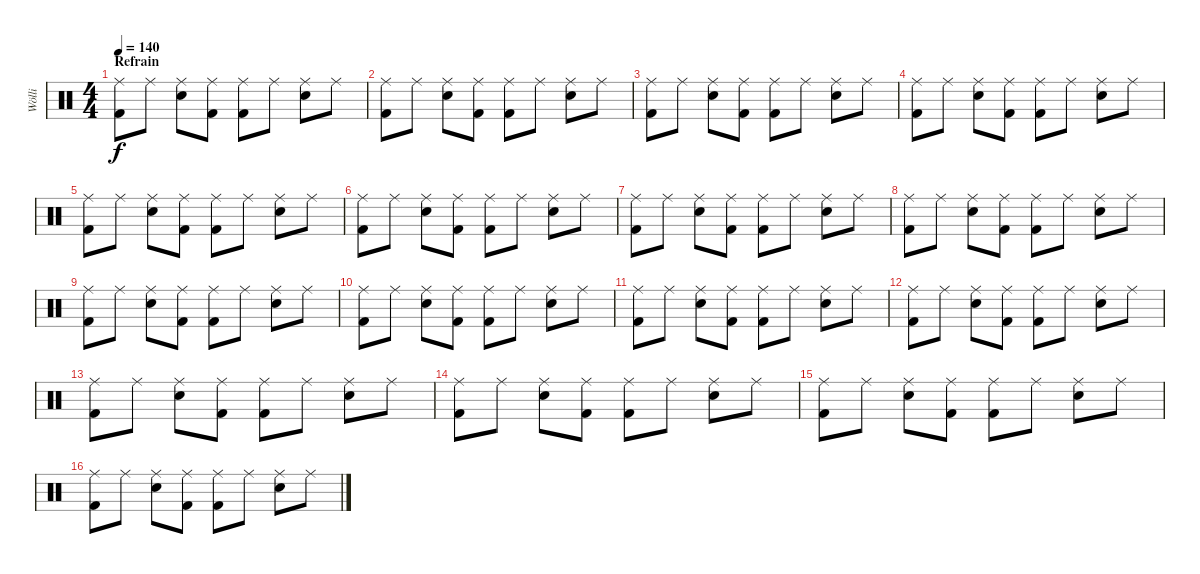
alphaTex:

\track ("Wölli" "Wölli") {instrument percussion}
\staff {score}
\articulation defaults
\ts (4 4)
\section ("" "Refrain")
\tempo 140
\clef neutral
\ks c
("Ride (middle)" "Kick (hit) 2").8{dy f} "Ride (middle)".8 ("Ride (middle)" "Snare (hit) 2").8 ("Ride (middle)" "Kick (hit) 2").8 ("Ride (middle)" "Kick (hit) 2").8 "Ride (middle)".8 ("Ride (middle)" "Snare (hit) 2").8 "Ride (middle)".8 |
("Ride (middle)" "Kick (hit) 2").8 "Ride (middle)".8 ("Ride (middle)" "Snare (hit) 2").8 ("Ride (middle)" "Kick (hit) 2").8 ("Ride (middle)" "Kick (hit) 2").8 "Ride (middle)".8 ("Ride (middle)" "Snare (hit) 2").8 "Ride (middle)".8 |
("Ride (middle)" "Kick (hit) 2").8 "Ride (middle)".8 ("Ride (middle)" "Snare (hit) 2").8 ("Ride (middle)" "Kick (hit) 2").8 ("Ride (middle)" "Kick (hit) 2").8 "Ride (middle)".8 ("Ride (middle)" "Snare (hit) 2").8 "Ride (middle)".8 |
("Ride (middle)" "Kick (hit) 2").8 "Ride (middle)".8 ("Ride (middle)" "Snare (hit) 2").8 ("Ride (middle)" "Kick (hit) 2").8 ("Ride (middle)" "Kick (hit) 2").8 "Ride (middle)".8 ("Ride (middle)" "Snare (hit) 2").8 "Ride (middle)".8 |
("Ride (middle)" "Kick (hit) 2").8 "Ride (middle)".8 ("Ride (middle)" "Snare (hit) 2").8 ("Ride (middle)" "Kick (hit) 2").8 ("Ride (middle)" "Kick (hit) 2").8 "Ride (middle)".8 ("Ride (middle)" "Snare (hit) 2").8 "Ride (middle)".8 |
("Ride (middle)" "Kick (hit) 2").8 "Ride (middle)".8 ("Ride (middle)" "Snare (hit) 2").8 ("Ride (middle)" "Kick (hit) 2").8 ("Ride (middle)" "Kick (hit) 2").8 "Ride (middle)".8 ("Ride (middle)" "Snare (hit) 2").8 "Ride (middle)".8 |
("Ride (middle)" "Kick (hit) 2").8 "Ride (middle)".8 ("Ride (middle)" "Snare (hit) 2").8 ("Ride (middle)" "Kick (hit) 2").8 ("Ride (middle)" "Kick (hit) 2").8 "Ride (middle)".8 ("Ride (middle)" "Snare (hit) 2").8 "Ride (middle)".8 |
("Ride (middle)" "Kick (hit) 2").8 "Ride (middle)".8 ("Ride (middle)" "Snare (hit) 2").8 ("Ride (middle)" "Kick (hit) 2").8 ("Ride (middle)" "Kick (hit) 2").8 "Ride (middle)".8 ("Ride (middle)" "Snare (hit) 2").8 "Ride (middle)".8 |
("Ride (middle)" "Kick (hit) 2").8 "Ride (middle)".8 ("Ride (middle)" "Snare (hit) 2").8 ("Ride (middle)" "Kick (hit) 2").8 ("Ride (middle)" "Kick (hit) 2").8 "Ride (middle)".8 ("Ride (middle)" "Snare (hit) 2").8 "Ride (middle)".8 |
("Ride (middle)" "Kick (hit) 2").8 "Ride (middle)".8 ("Ride (middle)" "Snare (hit) 2").8 ("Ride (middle)" "Kick (hit) 2").8 ("Ride (middle)" "Kick (hit) 2").8 "Ride (middle)".8 ("Ride (middle)" "Snare (hit) 2").8 "Ride (middle)".8 |
("Ride (middle)" "Kick (hit) 2").8 "Ride (middle)".8 ("Ride (middle)" "Snare (hit) 2").8 ("Ride (middle)" "Kick (hit) 2").8 ("Ride (middle)" "Kick (hit) 2").8 "Ride (middle)".8 ("Ride (middle)" "Snare (hit) 2").8 "Ride (middle)".8 |
("Ride (middle)" "Kick (hit) 2").8 "Ride (middle)".8 ("Ride (middle)" "Snare (hit) 2").8 ("Ride (middle)" "Kick (hit) 2").8 ("Ride (middle)" "Kick (hit) 2").8 "Ride (middle)".8 ("Ride (middle)" "Snare (hit) 2").8 "Ride (middle)".8 |
("Ride (middle)" "Kick (hit) 2").8 "Ride (middle)".8 ("Ride (middle)" "Snare (hit) 2").8 ("Ride (middle)" "Kick (hit) 2").8 ("Ride (middle)" "Kick (hit) 2").8 "Ride (middle)".8 ("Ride (middle)" "Snare (hit) 2").8 "Ride (middle)".8 |
("Ride (middle)" "Kick (hit) 2").8 "Ride (middle)".8 ("Ride (middle)" "Snare (hit) 2").8 ("Ride (middle)" "Kick (hit) 2").8 ("Ride (middle)" "Kick (hit) 2").8 "Ride (middle)".8 ("Ride (middle)" "Snare (hit) 2").8 "Ride (middle)".8 |
("Ride (middle)" "Kick (hit) 2").8 "Ride (middle)".8 ("Ride (middle)" "Snare (hit) 2").8 ("Ride (middle)" "Kick (hit) 2").8 ("Ride (middle)" "Kick (hit) 2").8 "Ride (middle)".8 ("Ride (middle)" "Snare (hit) 2").8 "Ride (middle)".8 |
("Ride (middle)" "Kick (hit) 2").8 "Ride (middle)".8 ("Ride (middle)" "Snare (hit) 2").8 ("Ride (middle)" "Kick (hit) 2").8 ("Ride (middle)" "Kick (hit) 2").8 "Ride (middle)".8 ("Ride (middle)" "Snare (hit) 2").8 "Ride (middle)".8
